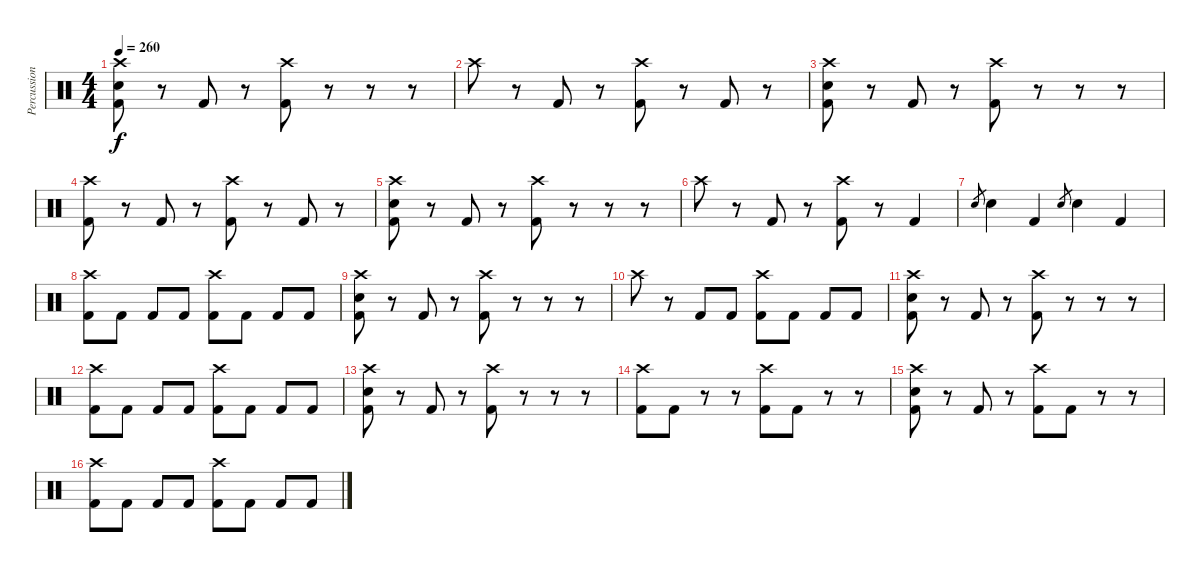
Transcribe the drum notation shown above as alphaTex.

\track ("Percussion" "Percussion") {instrument percussion}
\staff {score}
\articulation defaults
\ts (4 4)
\tempo 260
\clef neutral
\ks c
("Kick (hit) 2" "Snare (hit) 2" "Crash high (hit)").8{dy f} r.8 "Kick (hit) 2".8 r.8 ("Kick (hit) 2" "Crash high (hit)").8 r.8 r.8 r.8 |
"Crash high (hit)".8 r.8 "Kick (hit) 2".8 r.8 ("Kick (hit) 2" "Crash high (hit)").8 r.8 "Kick (hit) 2".8 r.8 |
("Kick (hit) 2" "Snare (hit) 2" "Crash high (hit)").8 r.8 "Kick (hit) 2".8 r.8 ("Kick (hit) 2" "Crash high (hit)").8 r.8 r.8 r.8 |
("Kick (hit) 2" "Crash high (hit)").8 r.8 "Kick (hit) 2".8 r.8 ("Kick (hit) 2" "Crash high (hit)").8 r.8 "Kick (hit) 2".8 r.8 |
("Kick (hit) 2" "Snare (hit) 2" "Crash high (hit)").8 r.8 "Kick (hit) 2".8 r.8 ("Kick (hit) 2" "Crash high (hit)").8 r.8 r.8 r.8 |
"Crash high (hit)".8 r.8 "Kick (hit) 2".8 r.8 ("Kick (hit) 2" "Crash high (hit)").8 r.8 "Kick (hit) 2".4 |
"Snare (hit) 2".8{gr} "Snare (hit) 2".4 "Kick (hit) 2".4 "Snare (hit) 2".8{gr} "Snare (hit) 2".4 "Kick (hit) 2".4 |
("Kick (hit) 2" "Crash high (hit)").8 "Kick (hit) 2".8 "Kick (hit) 2".8 "Kick (hit) 2".8 ("Kick (hit) 2" "Crash high (hit)").8 "Kick (hit) 2".8 "Kick (hit) 2".8 "Kick (hit) 2".8 |
("Kick (hit) 2" "Snare (hit) 2" "Crash high (hit)").8 r.8 "Kick (hit) 2".8 r.8 ("Kick (hit) 2" "Crash high (hit)").8 r.8 r.8 r.8 |
"Crash high (hit)".8 r.8 "Kick (hit) 2".8 "Kick (hit) 2".8 ("Kick (hit) 2" "Crash high (hit)").8 "Kick (hit) 2".8 "Kick (hit) 2".8 "Kick (hit) 2".8 |
("Kick (hit) 2" "Snare (hit) 2" "Crash high (hit)").8 r.8 "Kick (hit) 2".8 r.8 ("Kick (hit) 2" "Crash high (hit)").8 r.8 r.8 r.8 |
("Kick (hit) 2" "Crash high (hit)").8 "Kick (hit) 2".8 "Kick (hit) 2".8 "Kick (hit) 2".8 ("Kick (hit) 2" "Crash high (hit)").8 "Kick (hit) 2".8 "Kick (hit) 2".8 "Kick (hit) 2".8 |
("Kick (hit) 2" "Snare (hit) 2" "Crash high (hit)").8 r.8 "Kick (hit) 2".8 r.8 ("Kick (hit) 2" "Crash high (hit)").8 r.8 r.8 r.8 |
("Kick (hit) 2" "Crash high (hit)").8 "Kick (hit) 2".8 r.8 r.8 ("Kick (hit) 2" "Crash high (hit)").8 "Kick (hit) 2".8 r.8 r.8 |
("Kick (hit) 2" "Snare (hit) 2" "Crash high (hit)").8 r.8 "Kick (hit) 2".8 r.8 ("Kick (hit) 2" "Crash high (hit)").8 "Kick (hit) 2".8 r.8 r.8 |
("Kick (hit) 2" "Crash high (hit)").8 "Kick (hit) 2".8 "Kick (hit) 2".8 "Kick (hit) 2".8 ("Kick (hit) 2" "Crash high (hit)").8 "Kick (hit) 2".8 "Kick (hit) 2".8 "Kick (hit) 2".8
